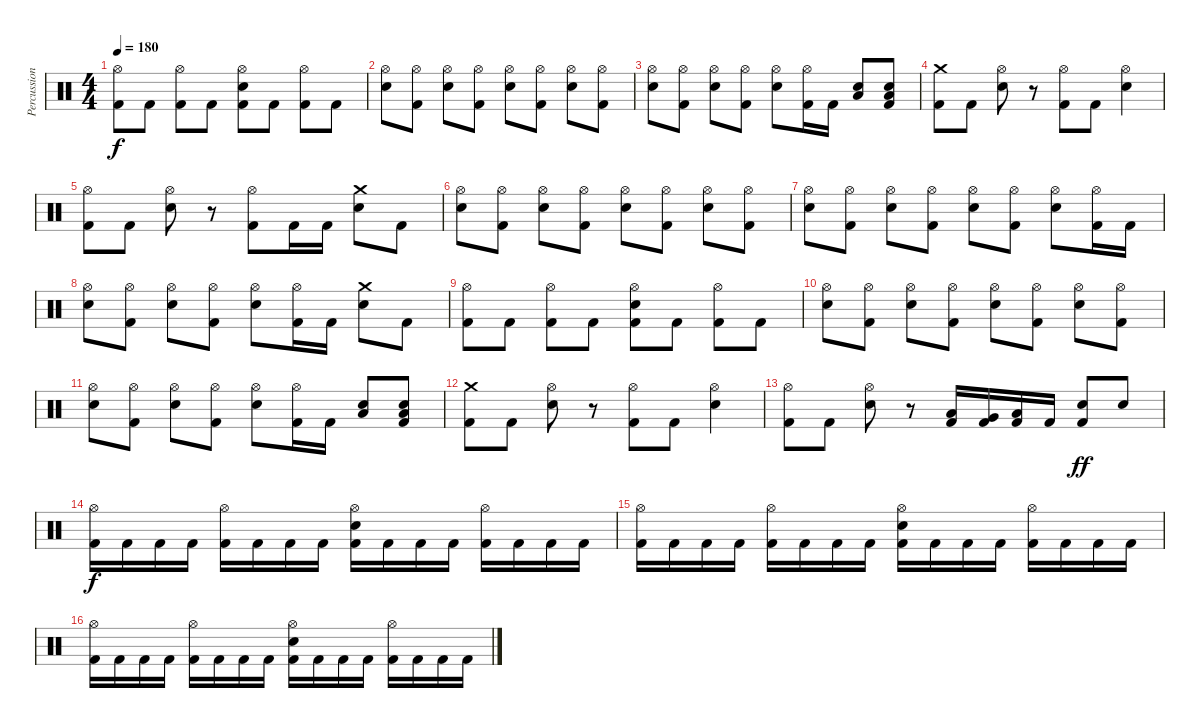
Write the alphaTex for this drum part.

\track ("Percussion" "Percussion") {instrument percussion}
\staff {score}
\articulation defaults
\ts (4 4)
\tempo 180
\clef neutral
\ks c
("Hi-Hat (open)" "Kick (hit) 2").8{dy f} "Kick (hit) 2".8 ("Hi-Hat (open)" "Kick (hit) 2").8 "Kick (hit) 2".8 ("Hi-Hat (open)" "Electric Snare (hit)" "Kick (hit) 2").8 "Kick (hit) 2".8 ("Hi-Hat (open)" "Kick (hit) 2").8 "Kick (hit) 2".8 |
("Hi-Hat (open)" "Electric Snare (hit)").8 ("Hi-Hat (open)" "Kick (hit) 2").8 ("Hi-Hat (open)" "Electric Snare (hit)").8 ("Hi-Hat (open)" "Kick (hit) 2").8 ("Hi-Hat (open)" "Electric Snare (hit)").8 ("Hi-Hat (open)" "Kick (hit) 2").8 ("Hi-Hat (open)" "Electric Snare (hit)").8 ("Hi-Hat (open)" "Kick (hit) 2").8 |
("Hi-Hat (open)" "Electric Snare (hit)").8 ("Hi-Hat (open)" "Kick (hit) 2").8 ("Hi-Hat (open)" "Electric Snare (hit)").8 ("Hi-Hat (open)" "Kick (hit) 2").8 ("Hi-Hat (open)" "Electric Snare (hit)").8 ("Hi-Hat (open)" "Kick (hit) 2").16 "Kick (hit) 2".16 ("Low Tom (hit)" "Electric Snare (hit)").8 ("Low Tom (hit)" "Electric Snare (hit)" "Kick (hit) 2").8 |
("Crash medium (hit)" "Kick (hit) 2").8 "Kick (hit) 2".8 ("Hi-Hat (open)" "Electric Snare (hit)").8 r.8 ("Hi-Hat (open)" "Kick (hit) 2").8 "Kick (hit) 2".8 ("Hi-Hat (open)" "Electric Snare (hit)").4 |
("Hi-Hat (open)" "Kick (hit) 2").8 "Kick (hit) 2".8 ("Hi-Hat (open)" "Electric Snare (hit)").8 r.8 ("Hi-Hat (open)" "Kick (hit) 2").8 "Kick (hit) 2".16 "Kick (hit) 2".16 ("Crash medium (hit)" "Electric Snare (hit)").8 "Kick (hit) 2".8 |
("Hi-Hat (open)" "Electric Snare (hit)").8 ("Hi-Hat (open)" "Kick (hit) 2").8 ("Hi-Hat (open)" "Electric Snare (hit)").8 ("Hi-Hat (open)" "Kick (hit) 2").8 ("Hi-Hat (open)" "Electric Snare (hit)").8 ("Hi-Hat (open)" "Kick (hit) 2").8 ("Hi-Hat (open)" "Electric Snare (hit)").8 ("Hi-Hat (open)" "Kick (hit) 2").8 |
("Hi-Hat (open)" "Electric Snare (hit)").8 ("Hi-Hat (open)" "Kick (hit) 2").8 ("Hi-Hat (open)" "Electric Snare (hit)").8 ("Hi-Hat (open)" "Kick (hit) 2").8 ("Hi-Hat (open)" "Electric Snare (hit)").8 ("Hi-Hat (open)" "Kick (hit) 2").8 ("Hi-Hat (open)" "Electric Snare (hit)").8 ("Hi-Hat (open)" "Kick (hit) 2").16 "Kick (hit) 2".16 |
("Hi-Hat (open)" "Electric Snare (hit)").8 ("Hi-Hat (open)" "Kick (hit) 2").8 ("Hi-Hat (open)" "Electric Snare (hit)").8 ("Hi-Hat (open)" "Kick (hit) 2").8 ("Hi-Hat (open)" "Electric Snare (hit)").8 ("Hi-Hat (open)" "Kick (hit) 2").16 "Kick (hit) 2".16 ("Crash medium (hit)" "Electric Snare (hit)").8 "Kick (hit) 2".8 |
("Hi-Hat (open)" "Kick (hit) 2").8 "Kick (hit) 2".8 ("Hi-Hat (open)" "Kick (hit) 2").8 "Kick (hit) 2".8 ("Hi-Hat (open)" "Electric Snare (hit)" "Kick (hit) 2").8 "Kick (hit) 2".8 ("Hi-Hat (open)" "Kick (hit) 2").8 "Kick (hit) 2".8 |
("Hi-Hat (open)" "Electric Snare (hit)").8 ("Hi-Hat (open)" "Kick (hit) 2").8 ("Hi-Hat (open)" "Electric Snare (hit)").8 ("Hi-Hat (open)" "Kick (hit) 2").8 ("Hi-Hat (open)" "Electric Snare (hit)").8 ("Hi-Hat (open)" "Kick (hit) 2").8 ("Hi-Hat (open)" "Electric Snare (hit)").8 ("Hi-Hat (open)" "Kick (hit) 2").8 |
("Hi-Hat (open)" "Electric Snare (hit)").8 ("Hi-Hat (open)" "Kick (hit) 2").8 ("Hi-Hat (open)" "Electric Snare (hit)").8 ("Hi-Hat (open)" "Kick (hit) 2").8 ("Hi-Hat (open)" "Electric Snare (hit)").8 ("Hi-Hat (open)" "Kick (hit) 2").16 "Kick (hit) 2".16 ("Low Tom (hit)" "Electric Snare (hit)").8 ("Low Tom (hit)" "Electric Snare (hit)" "Kick (hit) 2").8 |
("Crash medium (hit)" "Kick (hit) 2").8 "Kick (hit) 2".8 ("Hi-Hat (open)" "Electric Snare (hit)").8 r.8 ("Hi-Hat (open)" "Kick (hit) 2").8 "Kick (hit) 2".8 ("Hi-Hat (open)" "Electric Snare (hit)").4 |
("Hi-Hat (open)" "Kick (hit) 2").8 "Kick (hit) 2".8 ("Hi-Hat (open)" "Electric Snare (hit)").8 r.8 ("Low Tom (hit)" "Kick (hit) 2").16 ("Very Low Tom (hit)" "Kick (hit) 2").16 ("Low Floor Tom (hit)" "Kick (hit) 2").16 "Kick (hit) 2".16 ("Electric Snare (hit)" "Kick (hit) 2").8{dy ff} "Electric Snare (hit)".8 |
("Hi-Hat (open)" "Kick (hit) 2").16{dy f} "Kick (hit) 2".16 "Kick (hit) 2".16 "Kick (hit) 2".16 ("Hi-Hat (open)" "Kick (hit) 2").16 "Kick (hit) 2".16 "Kick (hit) 2".16 "Kick (hit) 2".16 ("Hi-Hat (open)" "Electric Snare (hit)" "Kick (hit) 2").16 "Kick (hit) 2".16 "Kick (hit) 2".16 "Kick (hit) 2".16 ("Hi-Hat (open)" "Kick (hit) 2").16 "Kick (hit) 2".16 "Kick (hit) 2".16 "Kick (hit) 2".16 |
("Hi-Hat (open)" "Kick (hit) 2").16 "Kick (hit) 2".16 "Kick (hit) 2".16 "Kick (hit) 2".16 ("Hi-Hat (open)" "Kick (hit) 2").16 "Kick (hit) 2".16 "Kick (hit) 2".16 "Kick (hit) 2".16 ("Hi-Hat (open)" "Electric Snare (hit)" "Kick (hit) 2").16 "Kick (hit) 2".16 "Kick (hit) 2".16 "Kick (hit) 2".16 ("Hi-Hat (open)" "Kick (hit) 2").16 "Kick (hit) 2".16 "Kick (hit) 2".16 "Kick (hit) 2".16 |
("Hi-Hat (open)" "Kick (hit) 2").16 "Kick (hit) 2".16 "Kick (hit) 2".16 "Kick (hit) 2".16 ("Hi-Hat (open)" "Kick (hit) 2").16 "Kick (hit) 2".16 "Kick (hit) 2".16 "Kick (hit) 2".16 ("Hi-Hat (open)" "Electric Snare (hit)" "Kick (hit) 2").16 "Kick (hit) 2".16 "Kick (hit) 2".16 "Kick (hit) 2".16 ("Hi-Hat (open)" "Kick (hit) 2").16 "Kick (hit) 2".16 "Kick (hit) 2".16 "Kick (hit) 2".16
